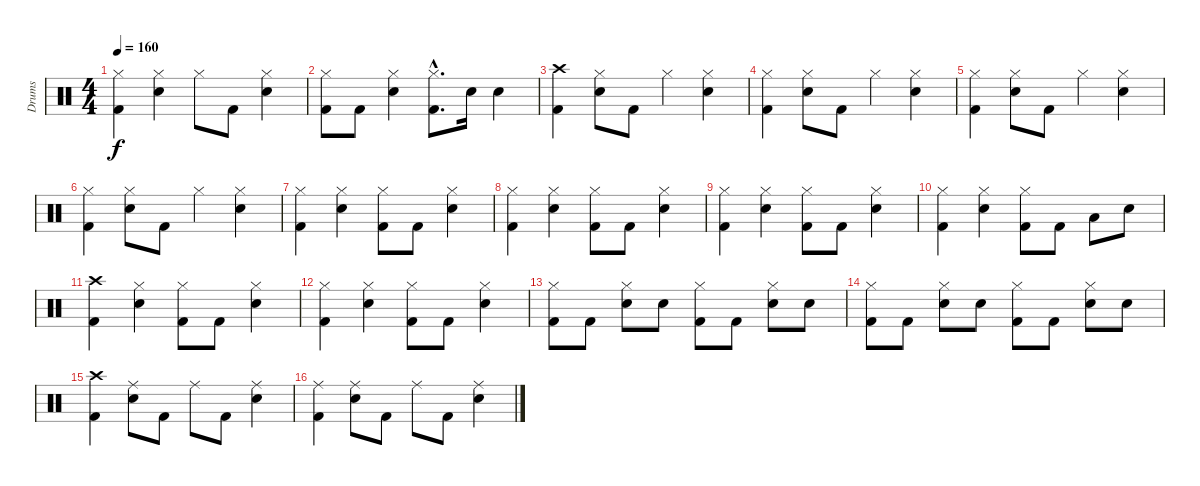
\track ("Drums" "Drums") {instrument percussion}
\staff {score}
\articulation defaults
\ts (4 4)
\tempo 160
\clef neutral
\ks c
("Hi-Hat (closed)" "Kick (hit) 2").4{dy f} ("Hi-Hat (closed)" "Snare (hit) 2").4 "Hi-Hat (closed)".8 "Kick (hit) 2".8 ("Hi-Hat (closed)" "Snare (hit) 2").4 |
("Hi-Hat (closed)" "Kick (hit) 2").8 "Kick (hit) 2".8 ("Hi-Hat (closed)" "Snare (hit) 2").4 ("Hi-Hat (closed)"{hac} "Kick (hit) 2"{hac}).8{d} "Snare (hit) 2".16 "Snare (hit) 2".4 |
("Crash high (hit)" "Kick (hit) 2").4 ("Hi-Hat (closed)" "Snare (hit) 2").8 "Kick (hit) 2".8 "Hi-Hat (closed)".4 ("Hi-Hat (closed)" "Snare (hit) 2").4 |
("Hi-Hat (closed)" "Kick (hit) 2").4 ("Hi-Hat (closed)" "Snare (hit) 2").8 "Kick (hit) 2".8 "Hi-Hat (closed)".4 ("Hi-Hat (closed)" "Snare (hit) 2").4 |
("Hi-Hat (closed)" "Kick (hit) 2").4 ("Hi-Hat (closed)" "Snare (hit) 2").8 "Kick (hit) 2".8 "Hi-Hat (closed)".4 ("Hi-Hat (closed)" "Snare (hit) 2").4 |
("Hi-Hat (closed)" "Kick (hit) 2").4 ("Hi-Hat (closed)" "Snare (hit) 2").8 "Kick (hit) 2".8 "Hi-Hat (closed)".4 ("Hi-Hat (closed)" "Snare (hit) 2").4 |
("Hi-Hat (closed)" "Kick (hit) 2").4 ("Hi-Hat (closed)" "Snare (hit) 2").4 ("Hi-Hat (closed)" "Kick (hit) 2").8 "Kick (hit) 2".8 ("Hi-Hat (closed)" "Snare (hit) 2").4 |
("Hi-Hat (closed)" "Kick (hit) 2").4 ("Hi-Hat (closed)" "Snare (hit) 2").4 ("Hi-Hat (closed)" "Kick (hit) 2").8 "Kick (hit) 2".8 ("Hi-Hat (closed)" "Snare (hit) 2").4 |
("Hi-Hat (closed)" "Kick (hit) 2").4 ("Hi-Hat (closed)" "Snare (hit) 2").4 ("Hi-Hat (closed)" "Kick (hit) 2").8 "Kick (hit) 2".8 ("Hi-Hat (closed)" "Snare (hit) 2").4 |
("Hi-Hat (closed)" "Kick (hit) 2").4 ("Hi-Hat (closed)" "Snare (hit) 2").4 ("Hi-Hat (closed)" "Kick (hit) 2").8 "Kick (hit) 2".8 "Low Tom (hit)".8 "Snare (hit) 2".8 |
("Crash high (hit)" "Kick (hit) 2").4 ("Hi-Hat (closed)" "Snare (hit) 2").4 ("Hi-Hat (closed)" "Kick (hit) 2").8 "Kick (hit) 2".8 ("Hi-Hat (closed)" "Snare (hit) 2").4 |
("Hi-Hat (closed)" "Kick (hit) 2").4 ("Hi-Hat (closed)" "Snare (hit) 2").4 ("Hi-Hat (closed)" "Kick (hit) 2").8 "Kick (hit) 2".8 ("Hi-Hat (closed)" "Snare (hit) 2").4 |
("Hi-Hat (closed)" "Kick (hit) 2").8 "Kick (hit) 2".8 ("Hi-Hat (closed)" "Snare (hit) 2").8 "Snare (hit) 2".8 ("Hi-Hat (closed)" "Kick (hit) 2").8 "Kick (hit) 2".8 ("Hi-Hat (closed)" "Snare (hit) 2").8 "Snare (hit) 2".8 |
("Hi-Hat (closed)" "Kick (hit) 2").8 "Kick (hit) 2".8 ("Hi-Hat (closed)" "Snare (hit) 2").8 "Snare (hit) 2".8 ("Hi-Hat (closed)" "Kick (hit) 2").8 "Kick (hit) 2".8 ("Hi-Hat (closed)" "Snare (hit) 2").8 "Snare (hit) 2".8 |
("Crash high (hit)" "Kick (hit) 2").4 ("Ride (middle)" "Snare (hit) 2").8 "Kick (hit) 2".8 "Ride (middle)".8 "Kick (hit) 2".8 ("Ride (middle)" "Snare (hit) 2").4 |
("Ride (middle)" "Kick (hit) 2").4 ("Ride (middle)" "Snare (hit) 2").8 "Kick (hit) 2".8 "Ride (middle)".8 "Kick (hit) 2".8 ("Ride (middle)" "Snare (hit) 2").4
